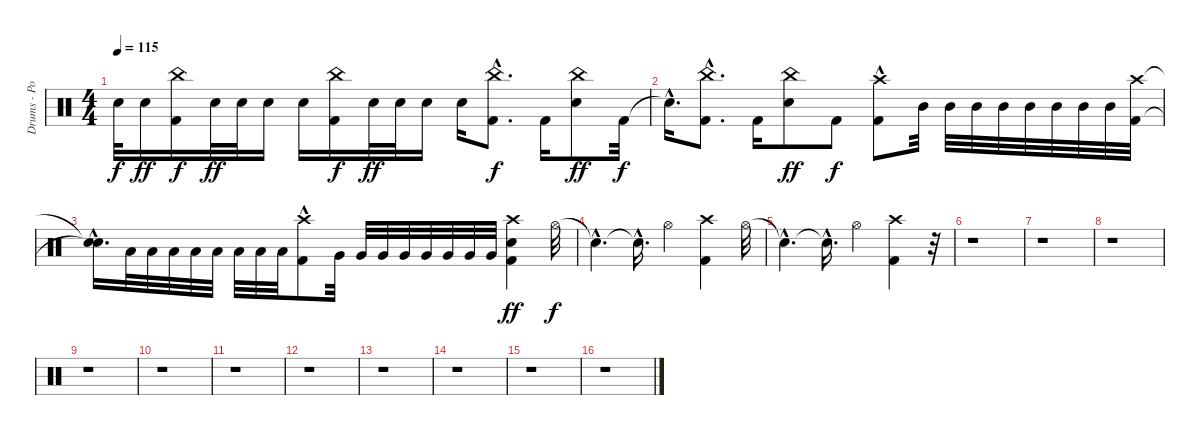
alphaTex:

\track ("Drums - Portnoy" "Drums - Po") {instrument percussion}
\staff {score}
\articulation defaults
\ts (4 4)
\tempo 115
\clef neutral
\ks c "Snare (hit)"{t}.32{dy f} "Electric Snare (hit)".16{dy ff}
("Kick (hit) 2" "China (hit)").16{dy f} "Electric Snare (hit)".32{dy ff} "Electric Snare (hit)".32 "Electric Snare (hit)".16 "Electric Snare (hit)".16 ("Kick (hit) 2" "China (hit)").16{dy f} "Electric Snare (hit)".32{dy ff} "Electric Snare (hit)".32 "Electric Snare (hit)".16 "Electric Snare (hit)".16 ("Kick (hit) 2"{hac} "China (hit)").8{d dy f} "Kick (hit) 2".16 ("Electric Snare (hit)" "China (hit)").8{dy ff} "Kick (hit) 2".32{dy f} |
"Snare (hit)"{hac t}.16{d} ("Kick (hit) 2"{hac} "China (hit)").8{d} "Kick (hit) 2".16 ("Electric Snare (hit)" "China (hit)").8{dy ff} "Kick (hit) 2".8{dy f} ("Kick (hit) 2" "Crash high (hit)"{hac}).8 "Mid Tom (hit)".32 "Mid Tom (hit)".32 "Mid Tom (hit)".32 "Mid Tom (hit)".32 "Mid Tom (hit)".32 "Mid Tom (hit)".32 "Mid Tom (hit)".32 "Mid Tom (hit)".32 ("Kick (hit) 2" "Crash high (hit)").32 |
("Snare (hit)"{hac t} "Snare (hit)"{hac t}).16{d} "Low Tom (hit)".32 "Low Tom (hit)".32 "Low Tom (hit)".32 "Low Tom (hit)".32 "Low Tom (hit)".32 "Low Tom (hit)".32 "Low Tom (hit)".32 "Low Tom (hit)".32 ("Kick (hit) 2" "Crash high (hit)"{hac}).8 "Very Low Tom (hit)".32 "Very Low Tom (hit)".32 "Very Low Tom (hit)".32 "Very Low Tom (hit)".32 "Very Low Tom (hit)".32 "Very Low Tom (hit)".32 "Very Low Tom (hit)".32 "Very Low Tom (hit)".32 ("Crash high (hit)" "Kick (hit) 2" "Electric Snare (hit)").4{dy ff} "Hi-Hat (open)".32{dy f} |
"Snare (hit)"{hac t}.4{d} "Snare (hit)"{hac t}.16{d} "Hi-Hat (open)".4 ("Kick (hit) 2" "Crash high (hit)").4 "Hi-Hat (open)".32 |
"Snare (hit)"{hac t}.4{d} "Snare (hit)"{hac t}.16{d} "Hi-Hat (open)".4 ("Kick (hit) 2" "Crash high (hit)").4 r.32 |
r.1 |
r.1 |
r.1 |
r.1 |
r.1 |
r.1 |
r.1 |
r.1 |
r.1 |
r.1 |
r.1
